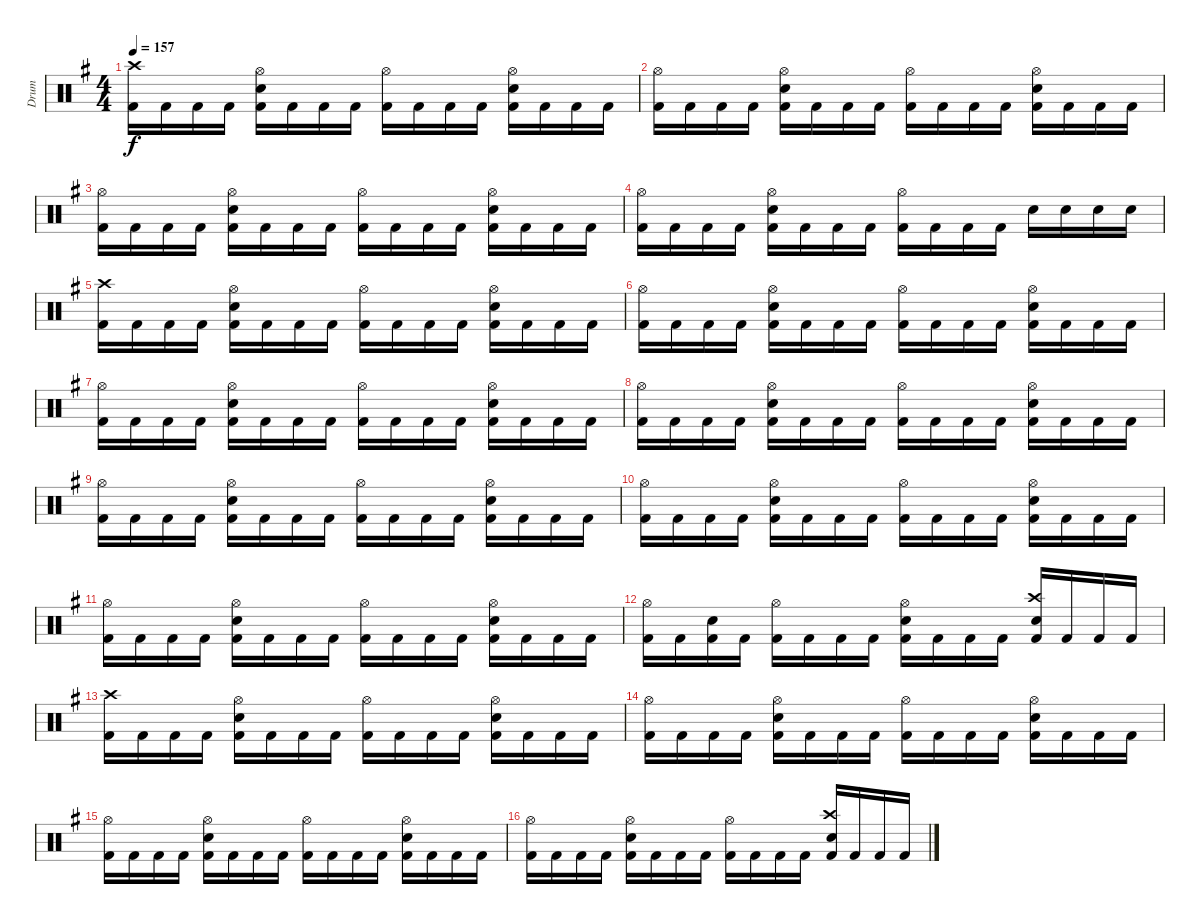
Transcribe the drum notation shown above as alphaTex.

\track ("Drum" "Drum") {instrument percussion}
\staff {score}
\articulation defaults
\ts (4 4)
\tempo 157
\clef neutral
\ks eminor
("Kick (hit) 2" "Crash high (hit)").16{dy f} "Kick (hit) 2".16 "Kick (hit) 2".16 "Kick (hit) 2".16 ("Kick (hit) 2" "Snare (hit) 2" "Hi-Hat (open)").16 "Kick (hit) 2".16 "Kick (hit) 2".16 "Kick (hit) 2".16 ("Kick (hit) 2" "Hi-Hat (open)").16 "Kick (hit) 2".16 "Kick (hit) 2".16 "Kick (hit) 2".16 ("Kick (hit) 2" "Snare (hit) 2" "Hi-Hat (open)").16 "Kick (hit) 2".16 "Kick (hit) 2".16 "Kick (hit) 2".16 |
("Kick (hit) 2" "Hi-Hat (open)").16 "Kick (hit) 2".16 "Kick (hit) 2".16 "Kick (hit) 2".16 ("Kick (hit) 2" "Snare (hit) 2" "Hi-Hat (open)").16 "Kick (hit) 2".16 "Kick (hit) 2".16 "Kick (hit) 2".16 ("Kick (hit) 2" "Hi-Hat (open)").16 "Kick (hit) 2".16 "Kick (hit) 2".16 "Kick (hit) 2".16 ("Kick (hit) 2" "Snare (hit) 2" "Hi-Hat (open)").16 "Kick (hit) 2".16 "Kick (hit) 2".16 "Kick (hit) 2".16 |
("Kick (hit) 2" "Hi-Hat (open)").16 "Kick (hit) 2".16 "Kick (hit) 2".16 "Kick (hit) 2".16 ("Kick (hit) 2" "Snare (hit) 2" "Hi-Hat (open)").16 "Kick (hit) 2".16 "Kick (hit) 2".16 "Kick (hit) 2".16 ("Kick (hit) 2" "Hi-Hat (open)").16 "Kick (hit) 2".16 "Kick (hit) 2".16 "Kick (hit) 2".16 ("Kick (hit) 2" "Snare (hit) 2" "Hi-Hat (open)").16 "Kick (hit) 2".16 "Kick (hit) 2".16 "Kick (hit) 2".16 |
("Kick (hit) 2" "Hi-Hat (open)").16 "Kick (hit) 2".16 "Kick (hit) 2".16 "Kick (hit) 2".16 ("Kick (hit) 2" "Snare (hit) 2" "Hi-Hat (open)").16 "Kick (hit) 2".16 "Kick (hit) 2".16 "Kick (hit) 2".16 ("Kick (hit) 2" "Hi-Hat (open)").16 "Kick (hit) 2".16 "Kick (hit) 2".16 "Kick (hit) 2".16 "Snare (hit) 2".16 "Snare (hit) 2".16 "Snare (hit) 2".16 "Snare (hit) 2".16 |
("Crash high (hit)" "Kick (hit) 2").16 "Kick (hit) 2".16 "Kick (hit) 2".16 "Kick (hit) 2".16 ("Hi-Hat (open)" "Snare (hit) 2" "Kick (hit) 2").16 "Kick (hit) 2".16 "Kick (hit) 2".16 "Kick (hit) 2".16 ("Hi-Hat (open)" "Kick (hit) 2").16 "Kick (hit) 2".16 "Kick (hit) 2".16 "Kick (hit) 2".16 ("Hi-Hat (open)" "Snare (hit) 2" "Kick (hit) 2").16 "Kick (hit) 2".16 "Kick (hit) 2".16 "Kick (hit) 2".16 |
("Hi-Hat (open)" "Kick (hit) 2").16 "Kick (hit) 2".16 "Kick (hit) 2".16 "Kick (hit) 2".16 ("Hi-Hat (open)" "Snare (hit) 2" "Kick (hit) 2").16 "Kick (hit) 2".16 "Kick (hit) 2".16 "Kick (hit) 2".16 ("Hi-Hat (open)" "Kick (hit) 2").16 "Kick (hit) 2".16 "Kick (hit) 2".16 "Kick (hit) 2".16 ("Hi-Hat (open)" "Snare (hit) 2" "Kick (hit) 2").16 "Kick (hit) 2".16 "Kick (hit) 2".16 "Kick (hit) 2".16 |
("Hi-Hat (open)" "Kick (hit) 2").16 "Kick (hit) 2".16 "Kick (hit) 2".16 "Kick (hit) 2".16 ("Hi-Hat (open)" "Snare (hit) 2" "Kick (hit) 2").16 "Kick (hit) 2".16 "Kick (hit) 2".16 "Kick (hit) 2".16 ("Hi-Hat (open)" "Kick (hit) 2").16 "Kick (hit) 2".16 "Kick (hit) 2".16 "Kick (hit) 2".16 ("Hi-Hat (open)" "Snare (hit) 2" "Kick (hit) 2").16 "Kick (hit) 2".16 "Kick (hit) 2".16 "Kick (hit) 2".16 |
("Hi-Hat (open)" "Kick (hit) 2").16 "Kick (hit) 2".16 "Kick (hit) 2".16 "Kick (hit) 2".16 ("Hi-Hat (open)" "Snare (hit) 2" "Kick (hit) 2").16 "Kick (hit) 2".16 "Kick (hit) 2".16 "Kick (hit) 2".16 ("Hi-Hat (open)" "Kick (hit) 2").16 "Kick (hit) 2".16 "Kick (hit) 2".16 "Kick (hit) 2".16 ("Hi-Hat (open)" "Snare (hit) 2" "Kick (hit) 2").16 "Kick (hit) 2".16 "Kick (hit) 2".16 "Kick (hit) 2".16 |
("Hi-Hat (open)" "Kick (hit) 2").16 "Kick (hit) 2".16 "Kick (hit) 2".16 "Kick (hit) 2".16 ("Hi-Hat (open)" "Snare (hit) 2" "Kick (hit) 2").16 "Kick (hit) 2".16 "Kick (hit) 2".16 "Kick (hit) 2".16 ("Hi-Hat (open)" "Kick (hit) 2").16 "Kick (hit) 2".16 "Kick (hit) 2".16 "Kick (hit) 2".16 ("Hi-Hat (open)" "Snare (hit) 2" "Kick (hit) 2").16 "Kick (hit) 2".16 "Kick (hit) 2".16 "Kick (hit) 2".16 |
("Hi-Hat (open)" "Kick (hit) 2").16 "Kick (hit) 2".16 "Kick (hit) 2".16 "Kick (hit) 2".16 ("Hi-Hat (open)" "Snare (hit) 2" "Kick (hit) 2").16 "Kick (hit) 2".16 "Kick (hit) 2".16 "Kick (hit) 2".16 ("Hi-Hat (open)" "Kick (hit) 2").16 "Kick (hit) 2".16 "Kick (hit) 2".16 "Kick (hit) 2".16 ("Hi-Hat (open)" "Snare (hit) 2" "Kick (hit) 2").16 "Kick (hit) 2".16 "Kick (hit) 2".16 "Kick (hit) 2".16 |
("Hi-Hat (open)" "Kick (hit) 2").16 "Kick (hit) 2".16 "Kick (hit) 2".16 "Kick (hit) 2".16 ("Hi-Hat (open)" "Snare (hit) 2" "Kick (hit) 2").16 "Kick (hit) 2".16 "Kick (hit) 2".16 "Kick (hit) 2".16 ("Hi-Hat (open)" "Kick (hit) 2").16 "Kick (hit) 2".16 "Kick (hit) 2".16 "Kick (hit) 2".16 ("Hi-Hat (open)" "Snare (hit) 2" "Kick (hit) 2").16 "Kick (hit) 2".16 "Kick (hit) 2".16 "Kick (hit) 2".16 |
("Hi-Hat (open)" "Kick (hit) 2").16 "Kick (hit) 2".16 ("Snare (hit) 2" "Kick (hit) 2").16 "Kick (hit) 2".16 ("Hi-Hat (open)" "Kick (hit) 2").16 "Kick (hit) 2".16 "Kick (hit) 2".16 "Kick (hit) 2".16 ("Hi-Hat (open)" "Snare (hit) 2" "Kick (hit) 2").16 "Kick (hit) 2".16 "Kick (hit) 2".16 "Kick (hit) 2".16 ("Crash high (hit)" "Snare (hit) 2" "Kick (hit) 2").16 "Kick (hit) 2".16 "Kick (hit) 2".16 "Kick (hit) 2".16 |
("Crash high (hit)" "Kick (hit) 2").16 "Kick (hit) 2".16 "Kick (hit) 2".16 "Kick (hit) 2".16 ("Hi-Hat (open)" "Snare (hit) 2" "Kick (hit) 2").16 "Kick (hit) 2".16 "Kick (hit) 2".16 "Kick (hit) 2".16 ("Hi-Hat (open)" "Kick (hit) 2").16 "Kick (hit) 2".16 "Kick (hit) 2".16 "Kick (hit) 2".16 ("Hi-Hat (open)" "Snare (hit) 2" "Kick (hit) 2").16 "Kick (hit) 2".16 "Kick (hit) 2".16 "Kick (hit) 2".16 |
("Hi-Hat (open)" "Kick (hit) 2").16 "Kick (hit) 2".16 "Kick (hit) 2".16 "Kick (hit) 2".16 ("Hi-Hat (open)" "Snare (hit) 2" "Kick (hit) 2").16 "Kick (hit) 2".16 "Kick (hit) 2".16 "Kick (hit) 2".16 ("Hi-Hat (open)" "Kick (hit) 2").16 "Kick (hit) 2".16 "Kick (hit) 2".16 "Kick (hit) 2".16 ("Hi-Hat (open)" "Snare (hit) 2" "Kick (hit) 2").16 "Kick (hit) 2".16 "Kick (hit) 2".16 "Kick (hit) 2".16 |
("Hi-Hat (open)" "Kick (hit) 2").16 "Kick (hit) 2".16 "Kick (hit) 2".16 "Kick (hit) 2".16 ("Hi-Hat (open)" "Snare (hit) 2" "Kick (hit) 2").16 "Kick (hit) 2".16 "Kick (hit) 2".16 "Kick (hit) 2".16 ("Hi-Hat (open)" "Kick (hit) 2").16 "Kick (hit) 2".16 "Kick (hit) 2".16 "Kick (hit) 2".16 ("Hi-Hat (open)" "Snare (hit) 2" "Kick (hit) 2").16 "Kick (hit) 2".16 "Kick (hit) 2".16 "Kick (hit) 2".16 |
("Hi-Hat (open)" "Kick (hit) 2").16 "Kick (hit) 2".16 "Kick (hit) 2".16 "Kick (hit) 2".16 ("Hi-Hat (open)" "Snare (hit) 2" "Kick (hit) 2").16 "Kick (hit) 2".16 "Kick (hit) 2".16 "Kick (hit) 2".16 ("Hi-Hat (open)" "Kick (hit) 2").16 "Kick (hit) 2".16 "Kick (hit) 2".16 "Kick (hit) 2".16 ("Crash high (hit)" "Snare (hit) 2" "Kick (hit) 2").16 "Kick (hit) 2".16 "Kick (hit) 2".16 "Kick (hit) 2".16
